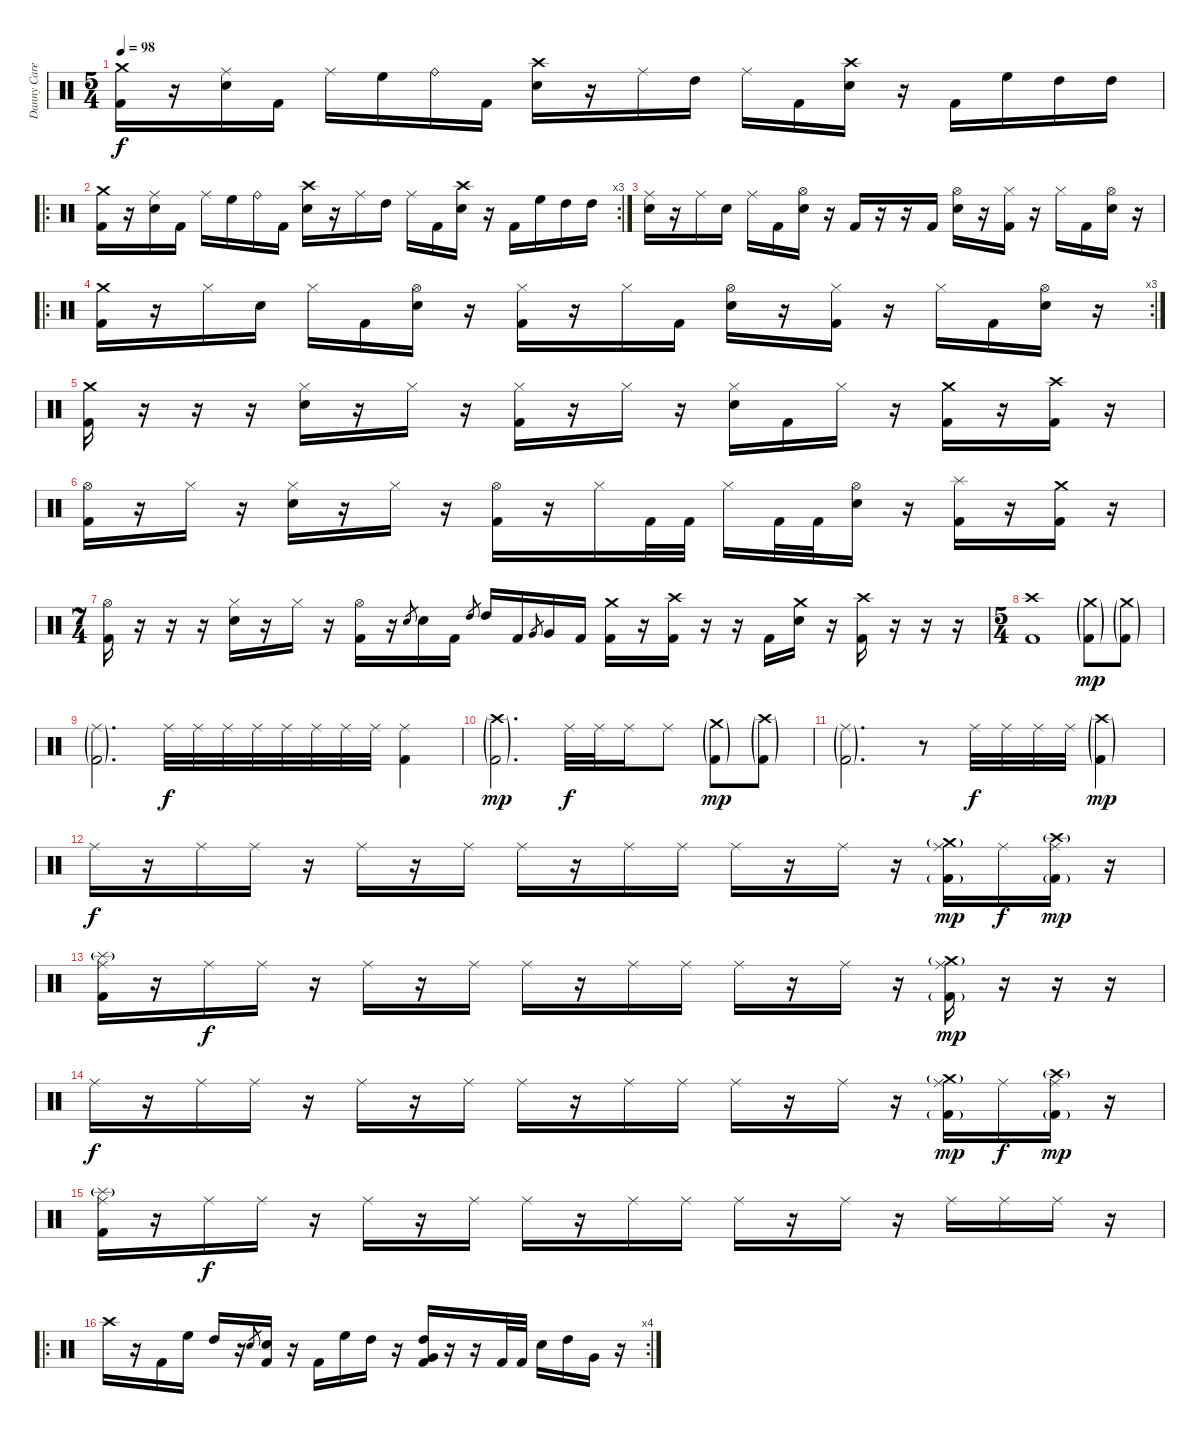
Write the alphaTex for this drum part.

\track ("Danny Carey" "Danny Care") {instrument percussion}
\staff {score}
\articulation defaults
\ts (5 4)
\tempo 98
\clef neutral
\ks c
("Crash medium (hit)" "Kick (hit) 2").16{dy f} r.16 ("Ride (middle)" "Electric Snare (hit)").16 "Kick (hit) 2".16 "Ride (middle)".16 "High Floor Tom (hit)".16 "Ride (bell)".16 "Kick (hit) 2".16 ("Crash high (hit)" "Electric Snare (hit)").16 r.16 "Ride (middle)".16 "High Tom (hit)".16 "Ride (middle)".16 "Kick (hit) 2".16 ("Crash high (hit)" "Electric Snare (hit)").16 r.16 "Kick (hit) 2".16 "High Floor Tom (hit)".16 "High Tom (hit)".16 "High Tom (hit)".16 |
\ro
\rc 3
("Crash medium (hit)" "Kick (hit) 2").16 r.16 ("Ride (middle)" "Electric Snare (hit)").16 "Kick (hit) 2".16 "Ride (middle)".16 "High Floor Tom (hit)".16 "Ride (bell)".16 "Kick (hit) 2".16 ("Crash high (hit)" "Electric Snare (hit)").16 r.16 "Ride (middle)".16 "High Tom (hit)".16 "Ride (middle)".16 "Kick (hit) 2".16 ("Crash high (hit)" "Electric Snare (hit)").16 r.16 "Kick (hit) 2".16 "High Floor Tom (hit)".16 "High Tom (hit)".16 "High Tom (hit)".16 |
("Ride (middle)" "Electric Snare (hit)").16 r.16 "Ride (middle)".16 "Electric Snare (hit)".16 "Ride (middle)".16 "Kick (hit) 2".16 ("Hi-Hat (open)" "Electric Snare (hit)").16 r.16 "Kick (hit) 2".16 r.16 r.16 "Kick (hit) 2".16 ("Hi-Hat (open)" "Electric Snare (hit)").16 r.16 ("Hi-Hat (closed)" "Kick (hit) 2").16 r.16 "Hi-Hat (closed)".16 "Kick (hit) 2".16 ("Hi-Hat (open)" "Electric Snare (hit)").16 r.16 |
\ro
\rc 3
("Crash medium (hit)" "Kick (hit) 2").16 r.16 "Hi-Hat (closed)".16 "Electric Snare (hit)".16 "Hi-Hat (closed)".16 "Kick (hit) 2".16 ("Hi-Hat (open)" "Electric Snare (hit)").16 r.16 ("Hi-Hat (closed)" "Kick (hit) 2").16 r.16 "Hi-Hat (closed)".16 "Kick (hit) 2".16 ("Hi-Hat (open)" "Electric Snare (hit)").16 r.16 ("Hi-Hat (closed)" "Kick (hit) 2").16 r.16 "Hi-Hat (closed)".16 "Kick (hit) 2".16 ("Hi-Hat (open)" "Electric Snare (hit)").16 r.16 |
("Crash medium (hit)" "Kick (hit) 2").16 r.16 r.16 r.16 ("Hi-Hat (closed)" "Electric Snare (hit)").16 r.16 "Hi-Hat (closed)".16 r.16 ("Hi-Hat (closed)" "Kick (hit) 2").16 r.16 "Hi-Hat (closed)".16 r.16 ("Hi-Hat (closed)" "Electric Snare (hit)").16 "Kick (hit) 2".16 "Hi-Hat (closed)".16 r.16 ("Crash medium (hit)" "Kick (hit) 2").16 r.16 ("Crash high (hit)" "Kick (hit) 2").16 r.16 |
("Hi-Hat (open)" "Kick (hit) 2").16 r.16 "Hi-Hat (closed)".16 r.16 ("Hi-Hat (closed)" "Electric Snare (hit)").16 r.16 "Hi-Hat (closed)".16 r.16 ("Hi-Hat (open)" "Kick (hit) 2").16 r.16 "Hi-Hat (closed)".16 "Kick (hit) 2".32 "Kick (hit) 2".32 "Hi-Hat (closed)".16 "Kick (hit) 2".32 "Kick (hit) 2".32 ("Hi-Hat (open)" "Electric Snare (hit)").16 r.16 ("Splash (hit)" "Kick (hit) 2").16 r.16 ("Crash medium (hit)" "Kick (hit) 2").16 r.16 |
\ts (7 4)
("Hi-Hat (open)" "Kick (hit) 2").16 r.16 r.16 r.16 ("Hi-Hat (closed)" "Electric Snare (hit)").16 r.16 "Hi-Hat (closed)".16 r.16 ("Hi-Hat (open)" "Kick (hit) 2").16 r.16 "Electric Snare (hit)".8{gr} "Electric Snare (hit)".16 "Kick (hit) 2".16 "High Tom (hit)".8{gr} "High Tom (hit)".16 "Kick (hit) 2".16 "Very Low Tom (hit)".8{gr} "Very Low Tom (hit)".16 "Kick (hit) 2".16 ("Crash medium (hit)" "Kick (hit) 2").16 r.16 ("Crash high (hit)" "Kick (hit) 2").16 r.16 r.16 "Kick (hit) 2".16 ("Crash medium (hit)" "Electric Snare (hit)").16 r.16 ("Crash high (hit)" "Kick (hit) 2").16 r.16 r.16 r.16 |
\ts (5 4)
("Crash high (hit)" "Kick (hit) 2").1 ("Crash medium (hit)"{g} "Kick (hit) 2"{g}).8{dy mp} ("Crash medium (hit)"{g} "Kick (hit) 2"{g}).8 |
("Ride (middle)"{g} "Kick (hit) 2"{g}).2{d} "Ride (middle)".32{dy f} "Ride (middle)".32 "Ride (middle)".32 "Ride (middle)".32 "Ride (middle)".32 "Ride (middle)".32 "Ride (middle)".32 "Ride (middle)".32 ("Ride (middle)" "Kick (hit) 2").4 |
("Crash high (hit)"{g} "Kick (hit) 2"{g}).2{d dy mp} "Ride (middle)".32{dy f} "Ride (middle)".32 "Ride (middle)".16 "Ride (middle)".8 ("Crash medium (hit)"{g} "Kick (hit) 2"{g}).8{dy mp} ("Crash high (hit)"{g} "Kick (hit) 2"{g}).8 |
("Ride (middle)"{g} "Kick (hit) 2"{g}).2{d} r.8 "Ride (middle)".32{dy f} "Ride (middle)".32 "Ride (middle)".32 "Ride (middle)".32 ("Crash high (hit)"{g} "Kick (hit) 2"{g}).4{dy mp} |
"Ride (middle)".16{dy f} r.16 "Ride (middle)".16 "Ride (middle)".16 r.16 "Ride (middle)".16 r.16 "Ride (middle)".16 "Ride (middle)".16 r.16 "Ride (middle)".16 "Ride (middle)".16 "Ride (middle)".16 r.16 "Ride (middle)".16 r.16 ("Crash medium (hit)"{g} "Ride (middle)" "Kick (hit) 2"{g}).16{dy mp} "Ride (middle)".16{dy f} ("Crash high (hit)"{g} "Ride (middle)" "Kick (hit) 2"{g}).16{dy mp} r.16 |
("Splash (hit)"{g} "Ride (middle)" "Kick (hit) 2").16 r.16 "Ride (middle)".16{dy f} "Ride (middle)".16 r.16 "Ride (middle)".16 r.16 "Ride (middle)".16 "Ride (middle)".16 r.16 "Ride (middle)".16 "Ride (middle)".16 "Ride (middle)".16 r.16 "Ride (middle)".16 r.16 ("Crash medium (hit)"{g} "Ride (middle)" "Kick (hit) 2"{g}).16{dy mp} r.16 r.16 r.16 |
"Ride (middle)".16{dy f} r.16 "Ride (middle)".16 "Ride (middle)".16 r.16 "Ride (middle)".16 r.16 "Ride (middle)".16 "Ride (middle)".16 r.16 "Ride (middle)".16 "Ride (middle)".16 "Ride (middle)".16 r.16 "Ride (middle)".16 r.16 ("Crash medium (hit)"{g} "Ride (middle)" "Kick (hit) 2"{g}).16{dy mp} "Ride (middle)".16{dy f} ("Crash high (hit)"{g} "Ride (middle)" "Kick (hit) 2"{g}).16{dy mp} r.16 |
("Splash (hit)"{g} "Ride (middle)" "Kick (hit) 2").16 r.16 "Ride (middle)".16{dy f} "Ride (middle)".16 r.16 "Ride (middle)".16 r.16 "Ride (middle)".16 "Ride (middle)".16 r.16 "Ride (middle)".16 "Ride (middle)".16 "Ride (middle)".16 r.16 "Ride (middle)".16 r.16 "Ride (middle)".16 "Ride (middle)".16 "Ride (middle)".16 r.16 |
\ro
\rc 4 "Crash high (hit)".16
r.16 "Kick (hit) 2".16 "High Floor Tom (hit)".16 "High Tom (hit)".16 r.16 "Electric Snare (hit)".8{gr} ("Electric Snare (hit)" "Kick (hit) 2").16 r.16 "Kick (hit) 2".16 "High Floor Tom (hit)".16 "High Tom (hit)".16 r.16 ("High Tom (hit)" "Very Low Tom (hit)" "Kick (hit) 2").16 r.16 r.16 "Kick (hit) 2".32 "Kick (hit) 2".32 "Electric Snare (hit)".16 "High Tom (hit)".16 "Very Low Tom (hit)".16 r.16
